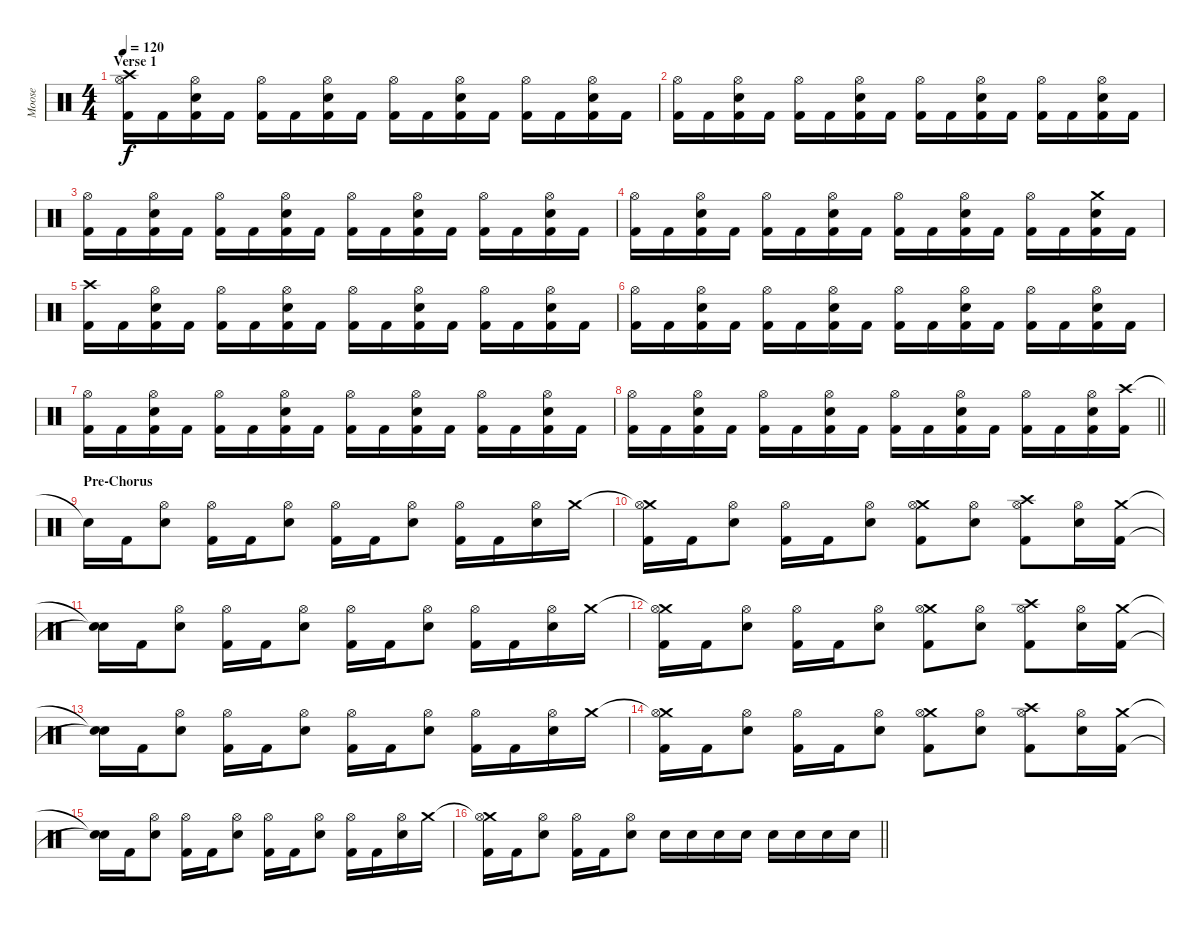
\track ("Moose" "Moose") {instrument percussion}
\staff {score}
\articulation defaults
\ts (4 4)
\section ("" "Verse 1")
\tempo 120
\clef neutral
\ks c
("Crash high (hit)" "Hi-Hat (open)" "Kick (hit) 2").16{dy f} "Kick (hit) 2".16 ("Hi-Hat (open)" "Electric Snare (hit)" "Kick (hit) 2").16 "Kick (hit) 2".16 ("Hi-Hat (open)" "Kick (hit) 2").16 "Kick (hit) 2".16 ("Hi-Hat (open)" "Electric Snare (hit)" "Kick (hit) 2").16 "Kick (hit) 2".16 ("Hi-Hat (open)" "Kick (hit) 2").16 "Kick (hit) 2".16 ("Hi-Hat (open)" "Electric Snare (hit)" "Kick (hit) 2").16 "Kick (hit) 2".16 ("Hi-Hat (open)" "Kick (hit) 2").16 "Kick (hit) 2".16 ("Hi-Hat (open)" "Electric Snare (hit)" "Kick (hit) 2").16 "Kick (hit) 2".16 |
("Hi-Hat (open)" "Kick (hit) 2").16 "Kick (hit) 2".16 ("Hi-Hat (open)" "Electric Snare (hit)" "Kick (hit) 2").16 "Kick (hit) 2".16 ("Hi-Hat (open)" "Kick (hit) 2").16 "Kick (hit) 2".16 ("Hi-Hat (open)" "Electric Snare (hit)" "Kick (hit) 2").16 "Kick (hit) 2".16 ("Hi-Hat (open)" "Kick (hit) 2").16 "Kick (hit) 2".16 ("Hi-Hat (open)" "Electric Snare (hit)" "Kick (hit) 2").16 "Kick (hit) 2".16 ("Hi-Hat (open)" "Kick (hit) 2").16 "Kick (hit) 2".16 ("Hi-Hat (open)" "Electric Snare (hit)" "Kick (hit) 2").16 "Kick (hit) 2".16 |
("Hi-Hat (open)" "Kick (hit) 2").16 "Kick (hit) 2".16 ("Hi-Hat (open)" "Electric Snare (hit)" "Kick (hit) 2").16 "Kick (hit) 2".16 ("Hi-Hat (open)" "Kick (hit) 2").16 "Kick (hit) 2".16 ("Hi-Hat (open)" "Electric Snare (hit)" "Kick (hit) 2").16 "Kick (hit) 2".16 ("Hi-Hat (open)" "Kick (hit) 2").16 "Kick (hit) 2".16 ("Hi-Hat (open)" "Electric Snare (hit)" "Kick (hit) 2").16 "Kick (hit) 2".16 ("Hi-Hat (open)" "Kick (hit) 2").16 "Kick (hit) 2".16 ("Hi-Hat (open)" "Electric Snare (hit)" "Kick (hit) 2").16 "Kick (hit) 2".16 |
("Hi-Hat (open)" "Kick (hit) 2").16 "Kick (hit) 2".16 ("Hi-Hat (open)" "Electric Snare (hit)" "Kick (hit) 2").16 "Kick (hit) 2".16 ("Hi-Hat (open)" "Kick (hit) 2").16 "Kick (hit) 2".16 ("Hi-Hat (open)" "Electric Snare (hit)" "Kick (hit) 2").16 "Kick (hit) 2".16 ("Hi-Hat (open)" "Kick (hit) 2").16 "Kick (hit) 2".16 ("Hi-Hat (open)" "Electric Snare (hit)" "Kick (hit) 2").16 "Kick (hit) 2".16 ("Hi-Hat (open)" "Kick (hit) 2").16 "Kick (hit) 2".16 ("Crash medium (hit)" "Electric Snare (hit)" "Kick (hit) 2").16 "Kick (hit) 2".16 |
("Crash high (hit)" "Kick (hit) 2").16 "Kick (hit) 2".16 ("Hi-Hat (open)" "Electric Snare (hit)" "Kick (hit) 2").16 "Kick (hit) 2".16 ("Hi-Hat (open)" "Kick (hit) 2").16 "Kick (hit) 2".16 ("Hi-Hat (open)" "Electric Snare (hit)" "Kick (hit) 2").16 "Kick (hit) 2".16 ("Hi-Hat (open)" "Kick (hit) 2").16 "Kick (hit) 2".16 ("Hi-Hat (open)" "Electric Snare (hit)" "Kick (hit) 2").16 "Kick (hit) 2".16 ("Hi-Hat (open)" "Kick (hit) 2").16 "Kick (hit) 2".16 ("Hi-Hat (open)" "Electric Snare (hit)" "Kick (hit) 2").16 "Kick (hit) 2".16 |
("Hi-Hat (open)" "Kick (hit) 2").16 "Kick (hit) 2".16 ("Hi-Hat (open)" "Electric Snare (hit)" "Kick (hit) 2").16 "Kick (hit) 2".16 ("Hi-Hat (open)" "Kick (hit) 2").16 "Kick (hit) 2".16 ("Hi-Hat (open)" "Electric Snare (hit)" "Kick (hit) 2").16 "Kick (hit) 2".16 ("Hi-Hat (open)" "Kick (hit) 2").16 "Kick (hit) 2".16 ("Hi-Hat (open)" "Electric Snare (hit)" "Kick (hit) 2").16 "Kick (hit) 2".16 ("Hi-Hat (open)" "Kick (hit) 2").16 "Kick (hit) 2".16 ("Hi-Hat (open)" "Electric Snare (hit)" "Kick (hit) 2").16 "Kick (hit) 2".16 |
("Hi-Hat (open)" "Kick (hit) 2").16 "Kick (hit) 2".16 ("Hi-Hat (open)" "Electric Snare (hit)" "Kick (hit) 2").16 "Kick (hit) 2".16 ("Hi-Hat (open)" "Kick (hit) 2").16 "Kick (hit) 2".16 ("Hi-Hat (open)" "Electric Snare (hit)" "Kick (hit) 2").16 "Kick (hit) 2".16 ("Hi-Hat (open)" "Kick (hit) 2").16 "Kick (hit) 2".16 ("Hi-Hat (open)" "Electric Snare (hit)" "Kick (hit) 2").16 "Kick (hit) 2".16 ("Hi-Hat (open)" "Kick (hit) 2").16 "Kick (hit) 2".16 ("Hi-Hat (open)" "Electric Snare (hit)" "Kick (hit) 2").16 "Kick (hit) 2".16 |
\barLineRight lightlight
("Hi-Hat (open)" "Kick (hit) 2").16 "Kick (hit) 2".16 ("Hi-Hat (open)" "Electric Snare (hit)" "Kick (hit) 2").16 "Kick (hit) 2".16 ("Hi-Hat (open)" "Kick (hit) 2").16 "Kick (hit) 2".16 ("Hi-Hat (open)" "Electric Snare (hit)" "Kick (hit) 2").16 "Kick (hit) 2".16 ("Hi-Hat (open)" "Kick (hit) 2").16 "Kick (hit) 2".16 ("Hi-Hat (open)" "Electric Snare (hit)" "Kick (hit) 2").16 "Kick (hit) 2".16 ("Hi-Hat (open)" "Kick (hit) 2").16 "Kick (hit) 2".16 ("Hi-Hat (open)" "Electric Snare (hit)" "Kick (hit) 2").16 ("Crash high (hit)" "Kick (hit) 2").16 |
\section ("" "Pre-Chorus")
"Snare (hit)"{t}.16 "Kick (hit) 2".16 ("Hi-Hat (open)" "Electric Snare (hit)").8 ("Hi-Hat (open)" "Kick (hit) 2").16 "Kick (hit) 2".16 ("Hi-Hat (open)" "Electric Snare (hit)").8 ("Hi-Hat (open)" "Kick (hit) 2").16 "Kick (hit) 2".16 ("Hi-Hat (open)" "Electric Snare (hit)").8 ("Hi-Hat (open)" "Kick (hit) 2").16 "Kick (hit) 2".16 ("Hi-Hat (open)" "Electric Snare (hit)").16 "Crash medium (hit)".16 |
("Crash medium (hit)"{t} "Hi-Hat (open)" "Kick (hit) 2").16 "Kick (hit) 2".16 ("Hi-Hat (open)" "Electric Snare (hit)").8 ("Hi-Hat (open)" "Kick (hit) 2").16 "Kick (hit) 2".16 ("Hi-Hat (open)" "Electric Snare (hit)").8 ("Crash medium (hit)" "Hi-Hat (open)" "Kick (hit) 2").8 ("Hi-Hat (open)" "Electric Snare (hit)").8 ("Crash high (hit)" "Hi-Hat (open)" "Kick (hit) 2").8 ("Hi-Hat (open)" "Electric Snare (hit)").16 ("Crash medium (hit)" "Kick (hit) 2").16 |
("Snare (hit)"{t} "Snare (hit)"{t}).16 "Kick (hit) 2".16 ("Hi-Hat (open)" "Electric Snare (hit)").8 ("Hi-Hat (open)" "Kick (hit) 2").16 "Kick (hit) 2".16 ("Hi-Hat (open)" "Electric Snare (hit)").8 ("Hi-Hat (open)" "Kick (hit) 2").16 "Kick (hit) 2".16 ("Hi-Hat (open)" "Electric Snare (hit)").8 ("Hi-Hat (open)" "Kick (hit) 2").16 "Kick (hit) 2".16 ("Hi-Hat (open)" "Electric Snare (hit)").16 "Crash medium (hit)".16 |
("Crash medium (hit)"{t} "Hi-Hat (open)" "Kick (hit) 2").16 "Kick (hit) 2".16 ("Hi-Hat (open)" "Electric Snare (hit)").8 ("Hi-Hat (open)" "Kick (hit) 2").16 "Kick (hit) 2".16 ("Hi-Hat (open)" "Electric Snare (hit)").8 ("Crash medium (hit)" "Hi-Hat (open)" "Kick (hit) 2").8 ("Hi-Hat (open)" "Electric Snare (hit)").8 ("Crash high (hit)" "Hi-Hat (open)" "Kick (hit) 2").8 ("Hi-Hat (open)" "Electric Snare (hit)").16 ("Crash medium (hit)" "Kick (hit) 2").16 |
("Snare (hit)"{t} "Snare (hit)"{t}).16 "Kick (hit) 2".16 ("Hi-Hat (open)" "Electric Snare (hit)").8 ("Hi-Hat (open)" "Kick (hit) 2").16 "Kick (hit) 2".16 ("Hi-Hat (open)" "Electric Snare (hit)").8 ("Hi-Hat (open)" "Kick (hit) 2").16 "Kick (hit) 2".16 ("Hi-Hat (open)" "Electric Snare (hit)").8 ("Hi-Hat (open)" "Kick (hit) 2").16 "Kick (hit) 2".16 ("Hi-Hat (open)" "Electric Snare (hit)").16 "Crash medium (hit)".16 |
("Crash medium (hit)"{t} "Hi-Hat (open)" "Kick (hit) 2").16 "Kick (hit) 2".16 ("Hi-Hat (open)" "Electric Snare (hit)").8 ("Hi-Hat (open)" "Kick (hit) 2").16 "Kick (hit) 2".16 ("Hi-Hat (open)" "Electric Snare (hit)").8 ("Crash medium (hit)" "Hi-Hat (open)" "Kick (hit) 2").8 ("Hi-Hat (open)" "Electric Snare (hit)").8 ("Crash high (hit)" "Hi-Hat (open)" "Kick (hit) 2").8 ("Hi-Hat (open)" "Electric Snare (hit)").16 ("Crash medium (hit)" "Kick (hit) 2").16 |
("Snare (hit)"{t} "Snare (hit)"{t}).16 "Kick (hit) 2".16 ("Hi-Hat (open)" "Electric Snare (hit)").8 ("Hi-Hat (open)" "Kick (hit) 2").16 "Kick (hit) 2".16 ("Hi-Hat (open)" "Electric Snare (hit)").8 ("Hi-Hat (open)" "Kick (hit) 2").16 "Kick (hit) 2".16 ("Hi-Hat (open)" "Electric Snare (hit)").8 ("Hi-Hat (open)" "Kick (hit) 2").16 "Kick (hit) 2".16 ("Hi-Hat (open)" "Electric Snare (hit)").16 "Crash medium (hit)".16 |
\barLineRight lightlight
("Crash medium (hit)"{t} "Hi-Hat (open)" "Kick (hit) 2").16 "Kick (hit) 2".16 ("Hi-Hat (open)" "Electric Snare (hit)").8 ("Hi-Hat (open)" "Kick (hit) 2").16 "Kick (hit) 2".16 ("Hi-Hat (open)" "Electric Snare (hit)").8 "Electric Snare (hit)".16 "Electric Snare (hit)".16 "Electric Snare (hit)".16 "Electric Snare (hit)".16 "Electric Snare (hit)".16 "Electric Snare (hit)".16 "Electric Snare (hit)".16 "Electric Snare (hit)".16
